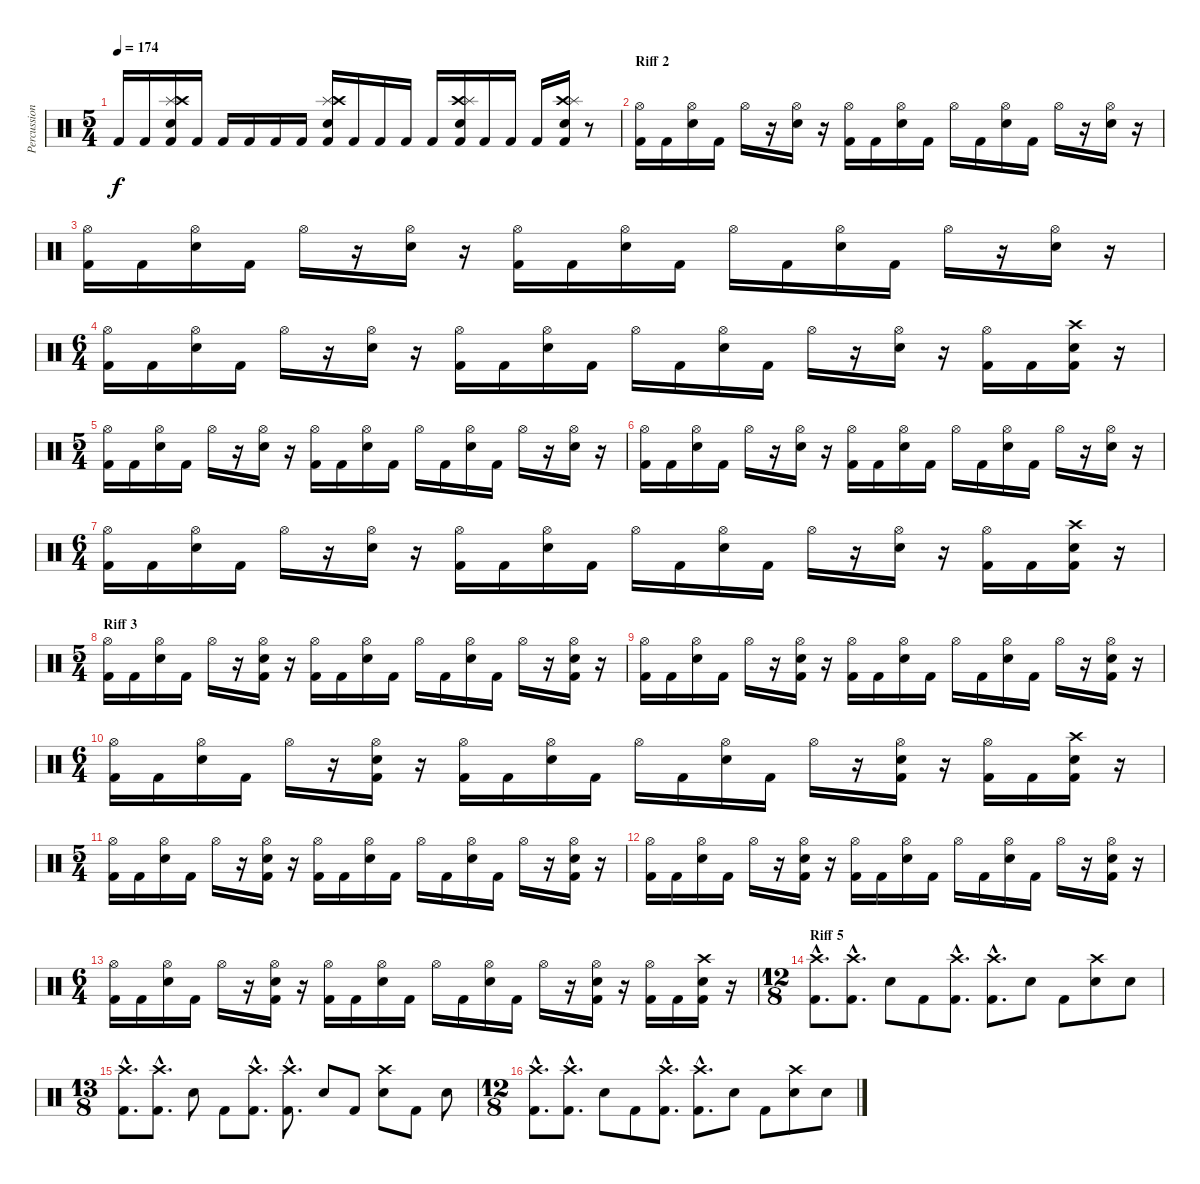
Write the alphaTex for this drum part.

\track ("Percussion" "Percussion") {instrument percussion}
\staff {score}
\articulation defaults
\ts (5 4)
\tempo 174
\clef neutral
\ks c "Kick (hit) 2".16{dy f} "Kick (hit) 2".16
("Splash (hit)" "Crash high (hit)" "Electric Snare (hit)" "Kick (hit) 2").16 "Kick (hit) 2".16 "Kick (hit) 2".16 "Kick (hit) 2".16 "Kick (hit) 2".16 "Kick (hit) 2".16 ("Splash (hit)" "Crash high (hit)" "Electric Snare (hit)" "Kick (hit) 2").16 "Kick (hit) 2".16 "Kick (hit) 2".16 "Kick (hit) 2".16 "Kick (hit) 2".16 ("Crash high (hit)" "Splash (hit)" "Electric Snare (hit)" "Kick (hit) 2").16 "Kick (hit) 2".16 "Kick (hit) 2".16 "Kick (hit) 2".16 ("Crash high (hit)" "Splash (hit)" "Electric Snare (hit)" "Kick (hit) 2").16 r.8 |
\section ("" "Riff 2")
("Hi-Hat (open)" "Kick (hit) 2").16 "Kick (hit) 2".16 ("Hi-Hat (open)" "Electric Snare (hit)").16 "Kick (hit) 2".16 "Hi-Hat (open)".16 r.16 ("Hi-Hat (open)" "Electric Snare (hit)").16 r.16 ("Hi-Hat (open)" "Kick (hit) 2").16 "Kick (hit) 2".16 ("Hi-Hat (open)" "Electric Snare (hit)").16 "Kick (hit) 2".16 "Hi-Hat (open)".16 "Kick (hit) 2".16 ("Hi-Hat (open)" "Electric Snare (hit)").16 "Kick (hit) 2".16 "Hi-Hat (open)".16 r.16 ("Hi-Hat (open)" "Electric Snare (hit)").16 r.16 |
("Hi-Hat (open)" "Kick (hit) 2").16 "Kick (hit) 2".16 ("Hi-Hat (open)" "Electric Snare (hit)").16 "Kick (hit) 2".16 "Hi-Hat (open)".16 r.16 ("Hi-Hat (open)" "Electric Snare (hit)").16 r.16 ("Hi-Hat (open)" "Kick (hit) 2").16 "Kick (hit) 2".16 ("Hi-Hat (open)" "Electric Snare (hit)").16 "Kick (hit) 2".16 "Hi-Hat (open)".16 "Kick (hit) 2".16 ("Hi-Hat (open)" "Electric Snare (hit)").16 "Kick (hit) 2".16 "Hi-Hat (open)".16 r.16 ("Hi-Hat (open)" "Electric Snare (hit)").16 r.16 |
\ts (6 4)
("Hi-Hat (open)" "Kick (hit) 2").16 "Kick (hit) 2".16 ("Hi-Hat (open)" "Electric Snare (hit)").16 "Kick (hit) 2".16 "Hi-Hat (open)".16 r.16 ("Hi-Hat (open)" "Electric Snare (hit)").16 r.16 ("Hi-Hat (open)" "Kick (hit) 2").16 "Kick (hit) 2".16 ("Hi-Hat (open)" "Electric Snare (hit)").16 "Kick (hit) 2".16 "Hi-Hat (open)".16 "Kick (hit) 2".16 ("Hi-Hat (open)" "Electric Snare (hit)").16 "Kick (hit) 2".16 "Hi-Hat (open)".16 r.16 ("Hi-Hat (open)" "Electric Snare (hit)").16 r.16 ("Hi-Hat (open)" "Kick (hit) 2").16 "Kick (hit) 2".16 ("Crash high (hit)" "Electric Snare (hit)" "Kick (hit) 2").16 r.16 |
\ts (5 4)
("Hi-Hat (open)" "Kick (hit) 2").16 "Kick (hit) 2".16 ("Hi-Hat (open)" "Electric Snare (hit)").16 "Kick (hit) 2".16 "Hi-Hat (open)".16 r.16 ("Hi-Hat (open)" "Electric Snare (hit)").16 r.16 ("Hi-Hat (open)" "Kick (hit) 2").16 "Kick (hit) 2".16 ("Hi-Hat (open)" "Electric Snare (hit)").16 "Kick (hit) 2".16 "Hi-Hat (open)".16 "Kick (hit) 2".16 ("Hi-Hat (open)" "Electric Snare (hit)").16 "Kick (hit) 2".16 "Hi-Hat (open)".16 r.16 ("Hi-Hat (open)" "Electric Snare (hit)").16 r.16 |
("Hi-Hat (open)" "Kick (hit) 2").16 "Kick (hit) 2".16 ("Hi-Hat (open)" "Electric Snare (hit)").16 "Kick (hit) 2".16 "Hi-Hat (open)".16 r.16 ("Hi-Hat (open)" "Electric Snare (hit)").16 r.16 ("Hi-Hat (open)" "Kick (hit) 2").16 "Kick (hit) 2".16 ("Hi-Hat (open)" "Electric Snare (hit)").16 "Kick (hit) 2".16 "Hi-Hat (open)".16 "Kick (hit) 2".16 ("Hi-Hat (open)" "Electric Snare (hit)").16 "Kick (hit) 2".16 "Hi-Hat (open)".16 r.16 ("Hi-Hat (open)" "Electric Snare (hit)").16 r.16 |
\ts (6 4)
("Hi-Hat (open)" "Kick (hit) 2").16 "Kick (hit) 2".16 ("Hi-Hat (open)" "Electric Snare (hit)").16 "Kick (hit) 2".16 "Hi-Hat (open)".16 r.16 ("Hi-Hat (open)" "Electric Snare (hit)").16 r.16 ("Hi-Hat (open)" "Kick (hit) 2").16 "Kick (hit) 2".16 ("Hi-Hat (open)" "Electric Snare (hit)").16 "Kick (hit) 2".16 "Hi-Hat (open)".16 "Kick (hit) 2".16 ("Hi-Hat (open)" "Electric Snare (hit)").16 "Kick (hit) 2".16 "Hi-Hat (open)".16 r.16 ("Hi-Hat (open)" "Electric Snare (hit)").16 r.16 ("Hi-Hat (open)" "Kick (hit) 2").16 "Kick (hit) 2".16 ("Crash high (hit)" "Electric Snare (hit)" "Kick (hit) 2").16 r.16 |
\ts (5 4)
\section ("" "Riff 3")
("Hi-Hat (open)" "Kick (hit) 2").16 "Kick (hit) 2".16 ("Hi-Hat (open)" "Electric Snare (hit)").16 "Kick (hit) 2".16 "Hi-Hat (open)".16 r.16 ("Hi-Hat (open)" "Electric Snare (hit)" "Kick (hit) 2").16 r.16 ("Hi-Hat (open)" "Kick (hit) 2").16 "Kick (hit) 2".16 ("Hi-Hat (open)" "Electric Snare (hit)").16 "Kick (hit) 2".16 "Hi-Hat (open)".16 "Kick (hit) 2".16 ("Hi-Hat (open)" "Electric Snare (hit)").16 "Kick (hit) 2".16 "Hi-Hat (open)".16 r.16 ("Hi-Hat (open)" "Electric Snare (hit)" "Kick (hit) 2").16 r.16 |
("Hi-Hat (open)" "Kick (hit) 2").16 "Kick (hit) 2".16 ("Hi-Hat (open)" "Electric Snare (hit)").16 "Kick (hit) 2".16 "Hi-Hat (open)".16 r.16 ("Hi-Hat (open)" "Electric Snare (hit)" "Kick (hit) 2").16 r.16 ("Hi-Hat (open)" "Kick (hit) 2").16 "Kick (hit) 2".16 ("Hi-Hat (open)" "Electric Snare (hit)").16 "Kick (hit) 2".16 "Hi-Hat (open)".16 "Kick (hit) 2".16 ("Hi-Hat (open)" "Electric Snare (hit)").16 "Kick (hit) 2".16 "Hi-Hat (open)".16 r.16 ("Hi-Hat (open)" "Electric Snare (hit)" "Kick (hit) 2").16 r.16 |
\ts (6 4)
("Hi-Hat (open)" "Kick (hit) 2").16 "Kick (hit) 2".16 ("Hi-Hat (open)" "Electric Snare (hit)").16 "Kick (hit) 2".16 "Hi-Hat (open)".16 r.16 ("Hi-Hat (open)" "Electric Snare (hit)" "Kick (hit) 2").16 r.16 ("Hi-Hat (open)" "Kick (hit) 2").16 "Kick (hit) 2".16 ("Hi-Hat (open)" "Electric Snare (hit)").16 "Kick (hit) 2".16 "Hi-Hat (open)".16 "Kick (hit) 2".16 ("Hi-Hat (open)" "Electric Snare (hit)").16 "Kick (hit) 2".16 "Hi-Hat (open)".16 r.16 ("Hi-Hat (open)" "Electric Snare (hit)" "Kick (hit) 2").16 r.16 ("Hi-Hat (open)" "Kick (hit) 2").16 "Kick (hit) 2".16 ("Crash high (hit)" "Electric Snare (hit)" "Kick (hit) 2").16 r.16 |
\ts (5 4)
("Hi-Hat (open)" "Kick (hit) 2").16 "Kick (hit) 2".16 ("Hi-Hat (open)" "Electric Snare (hit)").16 "Kick (hit) 2".16 "Hi-Hat (open)".16 r.16 ("Hi-Hat (open)" "Electric Snare (hit)" "Kick (hit) 2").16 r.16 ("Hi-Hat (open)" "Kick (hit) 2").16 "Kick (hit) 2".16 ("Hi-Hat (open)" "Electric Snare (hit)").16 "Kick (hit) 2".16 "Hi-Hat (open)".16 "Kick (hit) 2".16 ("Hi-Hat (open)" "Electric Snare (hit)").16 "Kick (hit) 2".16 "Hi-Hat (open)".16 r.16 ("Hi-Hat (open)" "Electric Snare (hit)" "Kick (hit) 2").16 r.16 |
("Hi-Hat (open)" "Kick (hit) 2").16 "Kick (hit) 2".16 ("Hi-Hat (open)" "Electric Snare (hit)").16 "Kick (hit) 2".16 "Hi-Hat (open)".16 r.16 ("Hi-Hat (open)" "Electric Snare (hit)" "Kick (hit) 2").16 r.16 ("Hi-Hat (open)" "Kick (hit) 2").16 "Kick (hit) 2".16 ("Hi-Hat (open)" "Electric Snare (hit)").16 "Kick (hit) 2".16 "Hi-Hat (open)".16 "Kick (hit) 2".16 ("Hi-Hat (open)" "Electric Snare (hit)").16 "Kick (hit) 2".16 "Hi-Hat (open)".16 r.16 ("Hi-Hat (open)" "Electric Snare (hit)" "Kick (hit) 2").16 r.16 |
\ts (6 4)
("Hi-Hat (open)" "Kick (hit) 2").16 "Kick (hit) 2".16 ("Hi-Hat (open)" "Electric Snare (hit)").16 "Kick (hit) 2".16 "Hi-Hat (open)".16 r.16 ("Hi-Hat (open)" "Electric Snare (hit)" "Kick (hit) 2").16 r.16 ("Hi-Hat (open)" "Kick (hit) 2").16 "Kick (hit) 2".16 ("Hi-Hat (open)" "Electric Snare (hit)").16 "Kick (hit) 2".16 "Hi-Hat (open)".16 "Kick (hit) 2".16 ("Hi-Hat (open)" "Electric Snare (hit)").16 "Kick (hit) 2".16 "Hi-Hat (open)".16 r.16 ("Hi-Hat (open)" "Electric Snare (hit)" "Kick (hit) 2").16 r.16 ("Hi-Hat (open)" "Kick (hit) 2").16 "Kick (hit) 2".16 ("Crash high (hit)" "Electric Snare (hit)" "Kick (hit) 2").16 r.16 |
\ts (12 8)
\section ("" "Riff 5")
("Crash high (hit)"{hac} "Kick (hit) 2"{hac}).8{d} ("Crash high (hit)"{hac} "Kick (hit) 2"{hac}).8{d} "Electric Snare (hit)".8 "Kick (hit) 2".8 ("Crash high (hit)"{hac} "Kick (hit) 2"{hac}).8{d} ("Crash high (hit)"{hac} "Kick (hit) 2"{hac}).8{d} "Electric Snare (hit)".8 "Kick (hit) 2".8 ("Crash high (hit)" "Electric Snare (hit)").8 "Electric Snare (hit)".8 |
\ts (13 8)
("Crash high (hit)"{hac} "Kick (hit) 2"{hac}).8{d} ("Crash high (hit)"{hac} "Kick (hit) 2"{hac}).8{d} "Electric Snare (hit)".8 "Kick (hit) 2".8 ("Crash high (hit)"{hac} "Kick (hit) 2"{hac}).8{d} ("Crash high (hit)"{hac} "Kick (hit) 2"{hac}).8{d} "Electric Snare (hit)".8 "Kick (hit) 2".8 ("Crash high (hit)" "Electric Snare (hit)").8 "Kick (hit) 2".8 "Electric Snare (hit)".8 |
\ts (12 8)
("Crash high (hit)"{hac} "Kick (hit) 2"{hac}).8{d} ("Crash high (hit)"{hac} "Kick (hit) 2"{hac}).8{d} "Electric Snare (hit)".8 "Kick (hit) 2".8 ("Crash high (hit)"{hac} "Kick (hit) 2"{hac}).8{d} ("Crash high (hit)"{hac} "Kick (hit) 2"{hac}).8{d} "Electric Snare (hit)".8 "Kick (hit) 2".8 ("Crash high (hit)" "Electric Snare (hit)").8 "Electric Snare (hit)".8
